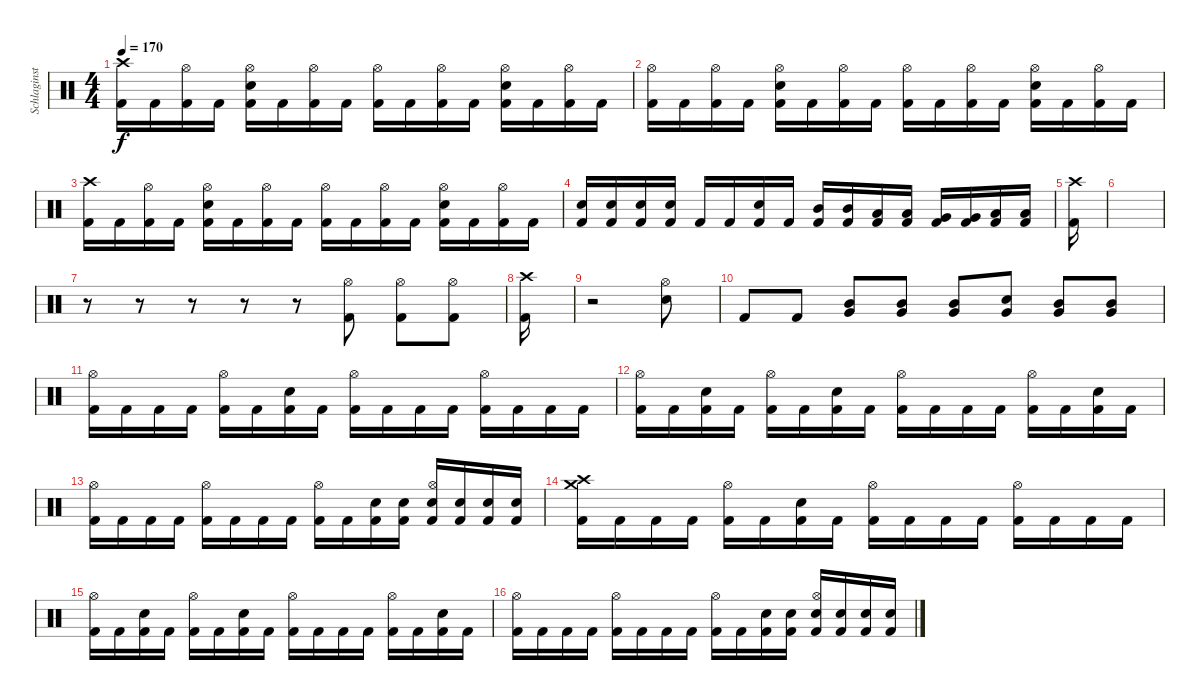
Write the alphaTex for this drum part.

\track ("Schlaginstrumente - Auswahl" "Schlaginst") {instrument percussion}
\staff {score}
\articulation defaults
\ts (4 4)
\tempo 170
\clef neutral
\ks c
("Crash high (hit)" "Kick (hit) 2").16{dy f} "Kick (hit) 2".16 ("Hi-Hat (open)" "Kick (hit) 2").16 "Kick (hit) 2".16 ("Hi-Hat (open)" "Snare (hit) 2" "Kick (hit) 2").16 "Kick (hit) 2".16 ("Hi-Hat (open)" "Kick (hit) 2").16 "Kick (hit) 2".16 ("Hi-Hat (open)" "Kick (hit) 2").16 "Kick (hit) 2".16 ("Hi-Hat (open)" "Kick (hit) 2").16 "Kick (hit) 2".16 ("Hi-Hat (open)" "Snare (hit) 2" "Kick (hit) 2").16 "Kick (hit) 2".16 ("Hi-Hat (open)" "Kick (hit) 2").16 "Kick (hit) 2".16 |
("Hi-Hat (open)" "Kick (hit) 2").16 "Kick (hit) 2".16 ("Hi-Hat (open)" "Kick (hit) 2").16 "Kick (hit) 2".16 ("Hi-Hat (open)" "Snare (hit) 2" "Kick (hit) 2").16 "Kick (hit) 2".16 ("Hi-Hat (open)" "Kick (hit) 2").16 "Kick (hit) 2".16 ("Hi-Hat (open)" "Kick (hit) 2").16 "Kick (hit) 2".16 ("Hi-Hat (open)" "Kick (hit) 2").16 "Kick (hit) 2".16 ("Hi-Hat (open)" "Snare (hit) 2" "Kick (hit) 2").16 "Kick (hit) 2".16 ("Hi-Hat (open)" "Kick (hit) 2").16 "Kick (hit) 2".16 |
("Crash high (hit)" "Kick (hit) 2").16 "Kick (hit) 2".16 ("Hi-Hat (open)" "Kick (hit) 2").16 "Kick (hit) 2".16 ("Hi-Hat (open)" "Snare (hit) 2" "Kick (hit) 2").16 "Kick (hit) 2".16 ("Hi-Hat (open)" "Kick (hit) 2").16 "Kick (hit) 2".16 ("Hi-Hat (open)" "Kick (hit) 2").16 "Kick (hit) 2".16 ("Hi-Hat (open)" "Kick (hit) 2").16 "Kick (hit) 2".16 ("Hi-Hat (open)" "Snare (hit) 2" "Kick (hit) 2").16 "Kick (hit) 2".16 ("Hi-Hat (open)" "Kick (hit) 2").16 "Kick (hit) 2".16 |
("Snare (hit) 2" "Kick (hit) 2").16 ("Snare (hit) 2" "Kick (hit) 2").16 ("Snare (hit) 2" "Kick (hit) 2").16 ("Snare (hit) 2" "Kick (hit) 2").16 "Kick (hit) 2".16 "Kick (hit) 2".16 ("Snare (hit) 2" "Kick (hit) 2").16 "Kick (hit) 2".16 ("Mid Tom (hit)" "Kick (hit) 2").16 ("Mid Tom (hit)" "Kick (hit) 2").16 ("Low Tom (hit)" "Kick (hit) 2").16 ("Low Tom (hit)" "Kick (hit) 2").16 ("Very Low Tom (hit)" "Kick (hit) 2").16 ("Very Low Tom (hit)" "Kick (hit) 2").16 ("Low Floor Tom (hit)" "Kick (hit) 2").16 ("Low Floor Tom (hit)" "Kick (hit) 2").16 |
("Crash high (hit)" "Kick (hit) 2").16 |
|
r.8 r.8 r.8 r.8 r.8 ("Hi-Hat (open)" "Kick (hit) 2").8 ("Hi-Hat (open)" "Kick (hit) 2").8 ("Hi-Hat (open)" "Kick (hit) 2").8 |
("Crash high (hit)" "Kick (hit) 2").16 |
r.2 ("Hi-Hat (open)" "Snare (hit) 2").8 |
"Kick (hit) 2".8 "Kick (hit) 2".8 ("Mid Tom (hit)" "Very Low Tom (hit)").8 ("Mid Tom (hit)" "Very Low Tom (hit)").8 ("Mid Tom (hit)" "Very Low Tom (hit)").8 ("Snare (hit) 2" "Very Low Tom (hit)").8 ("Mid Tom (hit)" "Very Low Tom (hit)").8 ("Mid Tom (hit)" "Very Low Tom (hit)").8 |
("Hi-Hat (open)" "Kick (hit) 2").16 "Kick (hit) 2".16 "Kick (hit) 2".16 "Kick (hit) 2".16 ("Hi-Hat (open)" "Kick (hit) 2").16 "Kick (hit) 2".16 ("Snare (hit) 2" "Kick (hit) 2").16 "Kick (hit) 2".16 ("Hi-Hat (open)" "Kick (hit) 2").16 "Kick (hit) 2".16 "Kick (hit) 2".16 "Kick (hit) 2".16 ("Hi-Hat (open)" "Kick (hit) 2").16 "Kick (hit) 2".16 "Kick (hit) 2".16 "Kick (hit) 2".16 |
("Hi-Hat (open)" "Kick (hit) 2").16 "Kick (hit) 2".16 ("Snare (hit) 2" "Kick (hit) 2").16 "Kick (hit) 2".16 ("Hi-Hat (open)" "Kick (hit) 2").16 "Kick (hit) 2".16 ("Snare (hit) 2" "Kick (hit) 2").16 "Kick (hit) 2".16 ("Hi-Hat (open)" "Kick (hit) 2").16 "Kick (hit) 2".16 "Kick (hit) 2".16 "Kick (hit) 2".16 ("Hi-Hat (open)" "Kick (hit) 2").16 "Kick (hit) 2".16 ("Snare (hit) 2" "Kick (hit) 2").16 "Kick (hit) 2".16 |
("Hi-Hat (open)" "Kick (hit) 2").16 "Kick (hit) 2".16 "Kick (hit) 2".16 "Kick (hit) 2".16 ("Hi-Hat (open)" "Kick (hit) 2").16 "Kick (hit) 2".16 "Kick (hit) 2".16 "Kick (hit) 2".16 ("Hi-Hat (open)" "Kick (hit) 2").16 "Kick (hit) 2".16 ("Snare (hit) 2" "Kick (hit) 2").16 ("Snare (hit) 2" "Kick (hit) 2").16 ("Hi-Hat (open)" "Snare (hit) 2" "Kick (hit) 2").16 ("Snare (hit) 2" "Kick (hit) 2").16 ("Snare (hit) 2" "Kick (hit) 2").16 ("Snare (hit) 2" "Kick (hit) 2").16 |
("Crash medium (hit)" "Crash high (hit)" "Kick (hit) 2").16 "Kick (hit) 2".16 "Kick (hit) 2".16 "Kick (hit) 2".16 ("Hi-Hat (open)" "Kick (hit) 2").16 "Kick (hit) 2".16 ("Snare (hit) 2" "Kick (hit) 2").16 "Kick (hit) 2".16 ("Hi-Hat (open)" "Kick (hit) 2").16 "Kick (hit) 2".16 "Kick (hit) 2".16 "Kick (hit) 2".16 ("Hi-Hat (open)" "Kick (hit) 2").16 "Kick (hit) 2".16 "Kick (hit) 2".16 "Kick (hit) 2".16 |
("Hi-Hat (open)" "Kick (hit) 2").16 "Kick (hit) 2".16 ("Snare (hit) 2" "Kick (hit) 2").16 "Kick (hit) 2".16 ("Hi-Hat (open)" "Kick (hit) 2").16 "Kick (hit) 2".16 ("Snare (hit) 2" "Kick (hit) 2").16 "Kick (hit) 2".16 ("Hi-Hat (open)" "Kick (hit) 2").16 "Kick (hit) 2".16 "Kick (hit) 2".16 "Kick (hit) 2".16 ("Hi-Hat (open)" "Kick (hit) 2").16 "Kick (hit) 2".16 ("Snare (hit) 2" "Kick (hit) 2").16 "Kick (hit) 2".16 |
("Hi-Hat (open)" "Kick (hit) 2").16 "Kick (hit) 2".16 "Kick (hit) 2".16 "Kick (hit) 2".16 ("Hi-Hat (open)" "Kick (hit) 2").16 "Kick (hit) 2".16 "Kick (hit) 2".16 "Kick (hit) 2".16 ("Hi-Hat (open)" "Kick (hit) 2").16 "Kick (hit) 2".16 ("Snare (hit) 2" "Kick (hit) 2").16 ("Snare (hit) 2" "Kick (hit) 2").16 ("Hi-Hat (open)" "Snare (hit) 2" "Kick (hit) 2").16 ("Snare (hit) 2" "Kick (hit) 2").16 ("Snare (hit) 2" "Kick (hit) 2").16 ("Snare (hit) 2" "Kick (hit) 2").16
